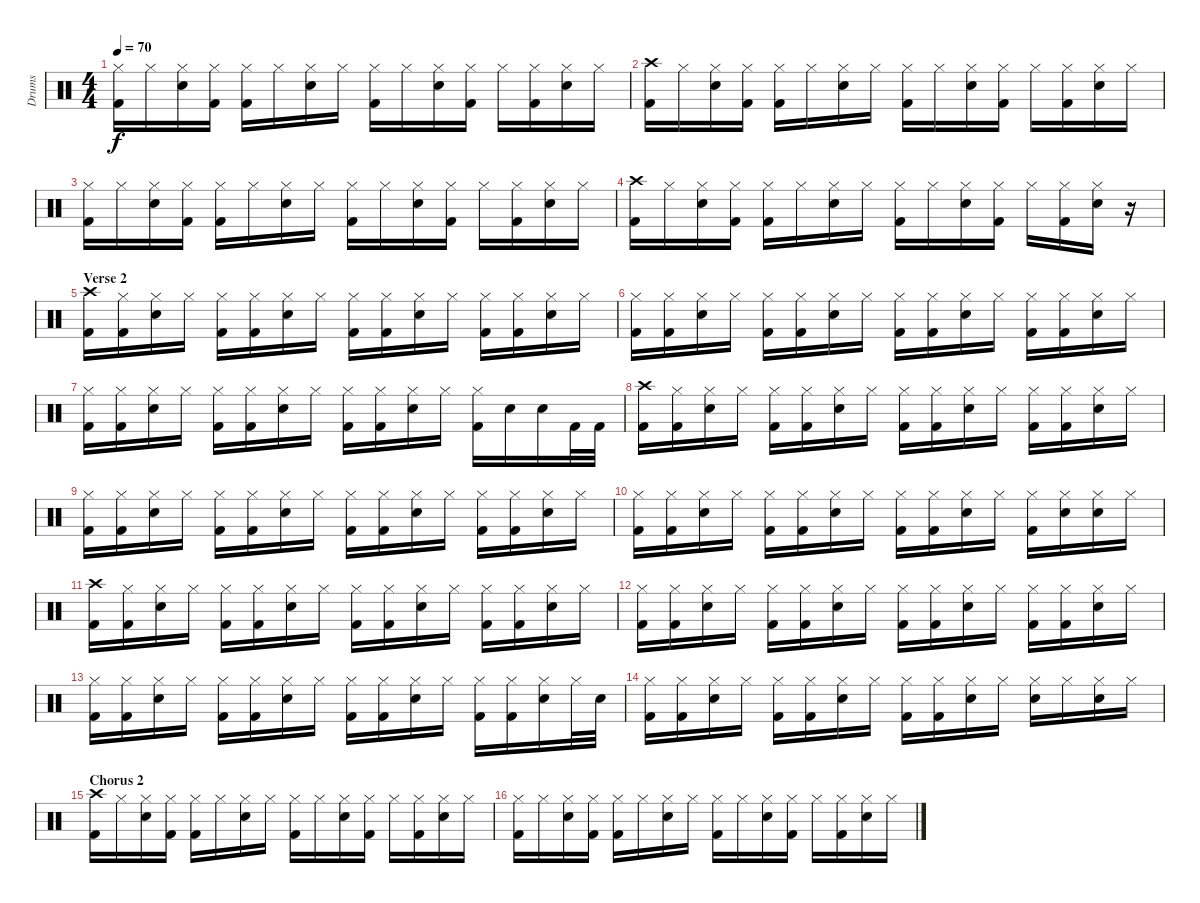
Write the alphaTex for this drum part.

\track ("Drums" "Drums") {instrument percussion}
\staff {score}
\articulation defaults
\ts (4 4)
\tempo 70
\clef neutral
\ks c
("Hi-Hat (closed)" "Kick (hit) 2").16{dy f} "Hi-Hat (closed)".16 ("Hi-Hat (closed)" "Snare (hit) 2").16 ("Hi-Hat (closed)" "Kick (hit) 2").16 ("Hi-Hat (closed)" "Kick (hit) 2").16 "Hi-Hat (closed)".16 ("Hi-Hat (closed)" "Snare (hit) 2").16 "Hi-Hat (closed)".16 ("Hi-Hat (closed)" "Kick (hit) 2").16 "Hi-Hat (closed)".16 ("Hi-Hat (closed)" "Snare (hit) 2").16 ("Hi-Hat (closed)" "Kick (hit) 2").16 "Hi-Hat (closed)".16 ("Hi-Hat (closed)" "Kick (hit) 2").16 ("Hi-Hat (closed)" "Snare (hit) 2").16 "Hi-Hat (closed)".16 |
("Crash high (hit)" "Kick (hit) 2").16 "Hi-Hat (closed)".16 ("Hi-Hat (closed)" "Snare (hit) 2").16 ("Hi-Hat (closed)" "Kick (hit) 2").16 ("Hi-Hat (closed)" "Kick (hit) 2").16 "Hi-Hat (closed)".16 ("Hi-Hat (closed)" "Snare (hit) 2").16 "Hi-Hat (closed)".16 ("Hi-Hat (closed)" "Kick (hit) 2").16 "Hi-Hat (closed)".16 ("Hi-Hat (closed)" "Snare (hit) 2").16 ("Hi-Hat (closed)" "Kick (hit) 2").16 "Hi-Hat (closed)".16 ("Hi-Hat (closed)" "Kick (hit) 2").16 ("Hi-Hat (closed)" "Snare (hit) 2").16 "Hi-Hat (closed)".16 |
("Hi-Hat (closed)" "Kick (hit) 2").16 "Hi-Hat (closed)".16 ("Hi-Hat (closed)" "Snare (hit) 2").16 ("Hi-Hat (closed)" "Kick (hit) 2").16 ("Hi-Hat (closed)" "Kick (hit) 2").16 "Hi-Hat (closed)".16 ("Hi-Hat (closed)" "Snare (hit) 2").16 "Hi-Hat (closed)".16 ("Hi-Hat (closed)" "Kick (hit) 2").16 "Hi-Hat (closed)".16 ("Hi-Hat (closed)" "Snare (hit) 2").16 ("Hi-Hat (closed)" "Kick (hit) 2").16 "Hi-Hat (closed)".16 ("Hi-Hat (closed)" "Kick (hit) 2").16 ("Hi-Hat (closed)" "Snare (hit) 2").16 "Hi-Hat (closed)".16 |
("Crash high (hit)" "Kick (hit) 2").16 "Hi-Hat (closed)".16 ("Hi-Hat (closed)" "Snare (hit) 2").16 ("Hi-Hat (closed)" "Kick (hit) 2").16 ("Hi-Hat (closed)" "Kick (hit) 2").16 "Hi-Hat (closed)".16 ("Hi-Hat (closed)" "Snare (hit) 2").16 "Hi-Hat (closed)".16 ("Hi-Hat (closed)" "Kick (hit) 2").16 "Hi-Hat (closed)".16 ("Hi-Hat (closed)" "Snare (hit) 2").16 ("Hi-Hat (closed)" "Kick (hit) 2").16 "Hi-Hat (closed)".16 ("Hi-Hat (closed)" "Kick (hit) 2").16 ("Hi-Hat (closed)" "Snare (hit) 2").16 r.16 |
\section ("" "Verse 2")
("Crash high (hit)" "Kick (hit) 2").16 ("Hi-Hat (closed)" "Kick (hit) 2").16 ("Hi-Hat (closed)" "Snare (hit) 2").16 "Hi-Hat (closed)".16 ("Hi-Hat (closed)" "Kick (hit) 2").16 ("Hi-Hat (closed)" "Kick (hit) 2").16 ("Hi-Hat (closed)" "Snare (hit) 2").16 "Hi-Hat (closed)".16 ("Hi-Hat (closed)" "Kick (hit) 2").16 ("Hi-Hat (closed)" "Kick (hit) 2").16 ("Hi-Hat (closed)" "Snare (hit) 2").16 "Hi-Hat (closed)".16 ("Hi-Hat (closed)" "Kick (hit) 2").16 ("Hi-Hat (closed)" "Kick (hit) 2").16 ("Hi-Hat (closed)" "Snare (hit) 2").16 "Hi-Hat (closed)".16 |
("Hi-Hat (closed)" "Kick (hit) 2").16 ("Hi-Hat (closed)" "Kick (hit) 2").16 ("Hi-Hat (closed)" "Snare (hit) 2").16 "Hi-Hat (closed)".16 ("Hi-Hat (closed)" "Kick (hit) 2").16 ("Hi-Hat (closed)" "Kick (hit) 2").16 ("Hi-Hat (closed)" "Snare (hit) 2").16 "Hi-Hat (closed)".16 ("Hi-Hat (closed)" "Kick (hit) 2").16 ("Hi-Hat (closed)" "Kick (hit) 2").16 ("Hi-Hat (closed)" "Snare (hit) 2").16 "Hi-Hat (closed)".16 ("Hi-Hat (closed)" "Kick (hit) 2").16 ("Hi-Hat (closed)" "Kick (hit) 2").16 ("Hi-Hat (closed)" "Snare (hit) 2").16 "Hi-Hat (closed)".16 |
("Hi-Hat (closed)" "Kick (hit) 2").16 ("Hi-Hat (closed)" "Kick (hit) 2").16 ("Hi-Hat (closed)" "Snare (hit) 2").16 "Hi-Hat (closed)".16 ("Hi-Hat (closed)" "Kick (hit) 2").16 ("Hi-Hat (closed)" "Kick (hit) 2").16 ("Hi-Hat (closed)" "Snare (hit) 2").16 "Hi-Hat (closed)".16 ("Hi-Hat (closed)" "Kick (hit) 2").16 ("Hi-Hat (closed)" "Kick (hit) 2").16 ("Hi-Hat (closed)" "Snare (hit) 2").16 "Hi-Hat (closed)".16 ("Hi-Hat (closed)" "Kick (hit) 2").16 "Snare (hit) 2".16 "Snare (hit) 2".16 "Kick (hit) 2".32 "Kick (hit) 2".32 |
("Crash high (hit)" "Kick (hit) 2").16 ("Hi-Hat (closed)" "Kick (hit) 2").16 ("Hi-Hat (closed)" "Snare (hit) 2").16 "Hi-Hat (closed)".16 ("Hi-Hat (closed)" "Kick (hit) 2").16 ("Hi-Hat (closed)" "Kick (hit) 2").16 ("Hi-Hat (closed)" "Snare (hit) 2").16 "Hi-Hat (closed)".16 ("Hi-Hat (closed)" "Kick (hit) 2").16 ("Hi-Hat (closed)" "Kick (hit) 2").16 ("Hi-Hat (closed)" "Snare (hit) 2").16 "Hi-Hat (closed)".16 ("Hi-Hat (closed)" "Kick (hit) 2").16 ("Hi-Hat (closed)" "Kick (hit) 2").16 ("Hi-Hat (closed)" "Snare (hit) 2").16 "Hi-Hat (closed)".16 |
("Hi-Hat (closed)" "Kick (hit) 2").16 ("Hi-Hat (closed)" "Kick (hit) 2").16 ("Hi-Hat (closed)" "Snare (hit) 2").16 "Hi-Hat (closed)".16 ("Hi-Hat (closed)" "Kick (hit) 2").16 ("Hi-Hat (closed)" "Kick (hit) 2").16 ("Hi-Hat (closed)" "Snare (hit) 2").16 "Hi-Hat (closed)".16 ("Hi-Hat (closed)" "Kick (hit) 2").16 ("Hi-Hat (closed)" "Kick (hit) 2").16 ("Hi-Hat (closed)" "Snare (hit) 2").16 "Hi-Hat (closed)".16 ("Hi-Hat (closed)" "Kick (hit) 2").16 ("Hi-Hat (closed)" "Kick (hit) 2").16 ("Hi-Hat (closed)" "Snare (hit) 2").16 "Hi-Hat (closed)".16 |
("Hi-Hat (closed)" "Kick (hit) 2").16 ("Hi-Hat (closed)" "Kick (hit) 2").16 ("Hi-Hat (closed)" "Snare (hit) 2").16 "Hi-Hat (closed)".16 ("Hi-Hat (closed)" "Kick (hit) 2").16 ("Hi-Hat (closed)" "Kick (hit) 2").16 ("Hi-Hat (closed)" "Snare (hit) 2").16 "Hi-Hat (closed)".16 ("Hi-Hat (closed)" "Kick (hit) 2").16 ("Hi-Hat (closed)" "Kick (hit) 2").16 ("Hi-Hat (closed)" "Snare (hit) 2").16 "Hi-Hat (closed)".16 ("Hi-Hat (closed)" "Kick (hit) 2").16 ("Hi-Hat (closed)" "Snare (hit) 2").16 ("Hi-Hat (closed)" "Snare (hit) 2").16 "Hi-Hat (closed)".16 |
("Crash high (hit)" "Kick (hit) 2").16 ("Hi-Hat (closed)" "Kick (hit) 2").16 ("Hi-Hat (closed)" "Snare (hit) 2").16 "Hi-Hat (closed)".16 ("Hi-Hat (closed)" "Kick (hit) 2").16 ("Hi-Hat (closed)" "Kick (hit) 2").16 ("Hi-Hat (closed)" "Snare (hit) 2").16 "Hi-Hat (closed)".16 ("Hi-Hat (closed)" "Kick (hit) 2").16 ("Hi-Hat (closed)" "Kick (hit) 2").16 ("Hi-Hat (closed)" "Snare (hit) 2").16 "Hi-Hat (closed)".16 ("Hi-Hat (closed)" "Kick (hit) 2").16 ("Hi-Hat (closed)" "Kick (hit) 2").16 ("Hi-Hat (closed)" "Snare (hit) 2").16 "Hi-Hat (closed)".16 |
("Hi-Hat (closed)" "Kick (hit) 2").16 ("Hi-Hat (closed)" "Kick (hit) 2").16 ("Hi-Hat (closed)" "Snare (hit) 2").16 "Hi-Hat (closed)".16 ("Hi-Hat (closed)" "Kick (hit) 2").16 ("Hi-Hat (closed)" "Kick (hit) 2").16 ("Hi-Hat (closed)" "Snare (hit) 2").16 "Hi-Hat (closed)".16 ("Hi-Hat (closed)" "Kick (hit) 2").16 ("Hi-Hat (closed)" "Kick (hit) 2").16 ("Hi-Hat (closed)" "Snare (hit) 2").16 "Hi-Hat (closed)".16 ("Hi-Hat (closed)" "Kick (hit) 2").16 ("Hi-Hat (closed)" "Kick (hit) 2").16 ("Hi-Hat (closed)" "Snare (hit) 2").16 "Hi-Hat (closed)".16 |
("Hi-Hat (closed)" "Kick (hit) 2").16 ("Hi-Hat (closed)" "Kick (hit) 2").16 ("Hi-Hat (closed)" "Snare (hit) 2").16 "Hi-Hat (closed)".16 ("Hi-Hat (closed)" "Kick (hit) 2").16 ("Hi-Hat (closed)" "Kick (hit) 2").16 ("Hi-Hat (closed)" "Snare (hit) 2").16 "Hi-Hat (closed)".16 ("Hi-Hat (closed)" "Kick (hit) 2").16 ("Hi-Hat (closed)" "Kick (hit) 2").16 ("Hi-Hat (closed)" "Snare (hit) 2").16 "Hi-Hat (closed)".16 ("Hi-Hat (closed)" "Kick (hit) 2").16 ("Hi-Hat (closed)" "Kick (hit) 2").16 ("Hi-Hat (closed)" "Snare (hit) 2").16 "Hi-Hat (closed)".32 "Snare (hit) 2".32 |
("Hi-Hat (closed)" "Kick (hit) 2").16 ("Hi-Hat (closed)" "Kick (hit) 2").16 ("Hi-Hat (closed)" "Snare (hit) 2").16 "Hi-Hat (closed)".16 ("Hi-Hat (closed)" "Kick (hit) 2").16 ("Hi-Hat (closed)" "Kick (hit) 2").16 ("Hi-Hat (closed)" "Snare (hit) 2").16 "Hi-Hat (closed)".16 ("Hi-Hat (closed)" "Kick (hit) 2").16 ("Hi-Hat (closed)" "Kick (hit) 2").16 ("Hi-Hat (closed)" "Snare (hit) 2").16 "Hi-Hat (closed)".16 ("Hi-Hat (closed)" "Snare (hit) 2").16 "Hi-Hat (closed)".16 ("Hi-Hat (closed)" "Snare (hit) 2").16 "Hi-Hat (closed)".16 |
\section ("" "Chorus 2")
("Crash high (hit)" "Kick (hit) 2").16 "Hi-Hat (closed)".16 ("Hi-Hat (closed)" "Snare (hit) 2").16 ("Hi-Hat (closed)" "Kick (hit) 2").16 ("Hi-Hat (closed)" "Kick (hit) 2").16 "Hi-Hat (closed)".16 ("Hi-Hat (closed)" "Snare (hit) 2").16 "Hi-Hat (closed)".16 ("Hi-Hat (closed)" "Kick (hit) 2").16 "Hi-Hat (closed)".16 ("Hi-Hat (closed)" "Snare (hit) 2").16 ("Hi-Hat (closed)" "Kick (hit) 2").16 "Hi-Hat (closed)".16 ("Hi-Hat (closed)" "Kick (hit) 2").16 ("Hi-Hat (closed)" "Snare (hit) 2").16 "Hi-Hat (closed)".16 |
("Hi-Hat (closed)" "Kick (hit) 2").16 "Hi-Hat (closed)".16 ("Hi-Hat (closed)" "Snare (hit) 2").16 ("Hi-Hat (closed)" "Kick (hit) 2").16 ("Hi-Hat (closed)" "Kick (hit) 2").16 "Hi-Hat (closed)".16 ("Hi-Hat (closed)" "Snare (hit) 2").16 "Hi-Hat (closed)".16 ("Hi-Hat (closed)" "Kick (hit) 2").16 "Hi-Hat (closed)".16 ("Hi-Hat (closed)" "Snare (hit) 2").16 ("Hi-Hat (closed)" "Kick (hit) 2").16 "Hi-Hat (closed)".16 ("Hi-Hat (closed)" "Kick (hit) 2").16 ("Hi-Hat (closed)" "Snare (hit) 2").16 "Hi-Hat (closed)".16
